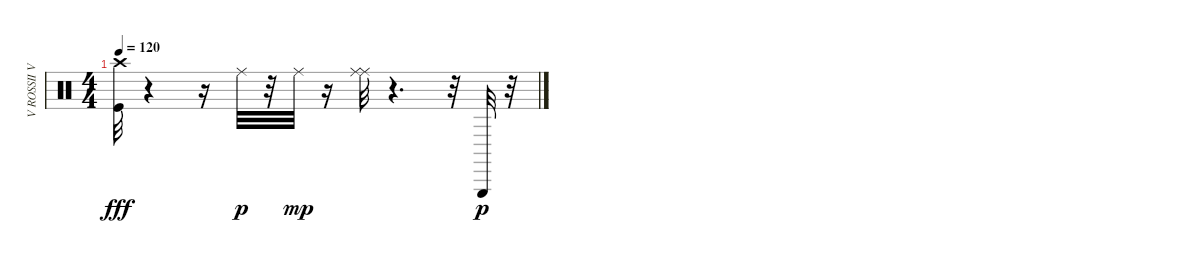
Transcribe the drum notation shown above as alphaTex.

\track ("V ROSSII VECHERA     " "V ROSSII V") {instrument percussion}
\staff {score}
\articulation defaults
\ts (4 4)
\tempo 120
\clef neutral
\ks c
("Crash high (hit)" "Kick (hit)").32{dy fff} r.4 r.16 "Ride (middle)".32{dy p} r.32 "Ride (middle)".32{dy mp} r.16 ("Ride (middle)" "Ride (middle)").32 r.4{d} r.32 "Triangle (hit)".32{dy p} r.32
